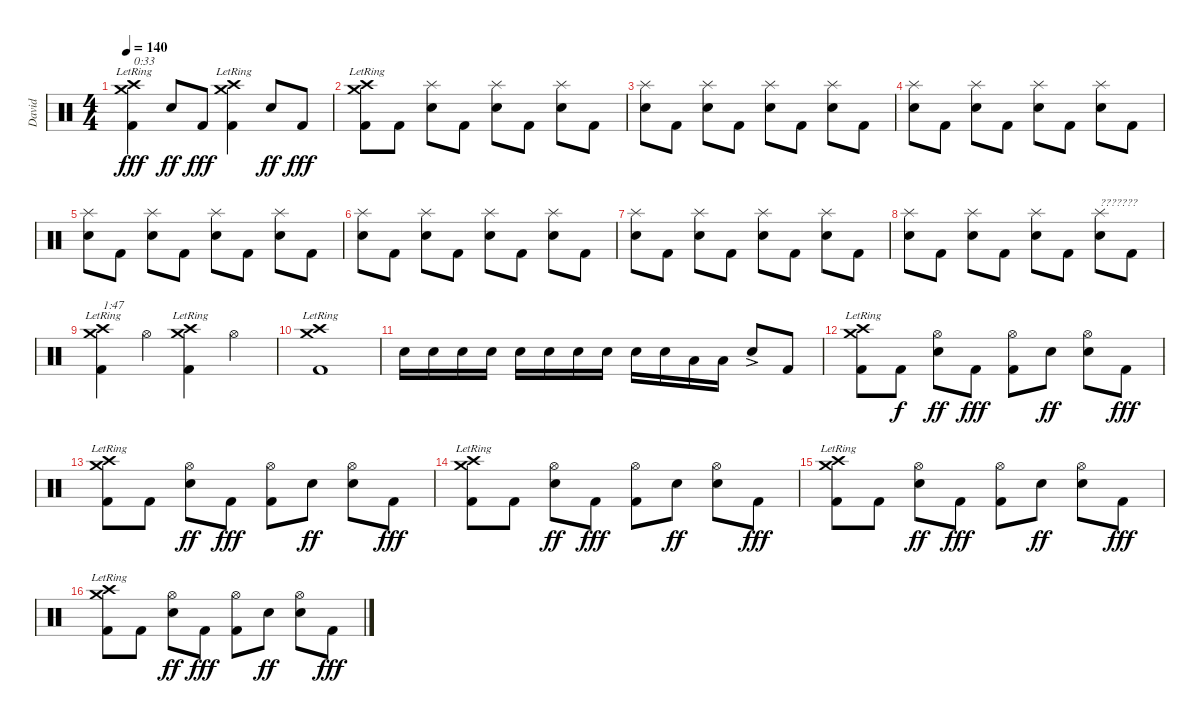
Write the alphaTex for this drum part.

\track ("David " "David ") {instrument percussion}
\staff {score}
\articulation defaults
\ts (4 4)
\tempo 140
\clef neutral
\ks c
("Crash high (hit)"{lr} "Crash medium (hit)"{lr} "Kick (hit) 2").4{txt "0:33" dy fff} "Electric Snare (hit)".8{dy ff} "Kick (hit) 2".8{dy fff} ("Crash high (hit)"{lr} "Crash medium (hit)"{lr} "Kick (hit) 2").4 "Electric Snare (hit)".8{dy ff} "Kick (hit) 2".8{dy fff} |
("Crash high (hit)"{lr} "Crash medium (hit)"{lr} "Kick (hit) 2").8 "Kick (hit) 2".8 ("Electric Snare (hit)" "Splash (hit)").8 "Kick (hit) 2".8 ("Electric Snare (hit)" "Splash (hit)").8 "Kick (hit) 2".8 ("Electric Snare (hit)" "Splash (hit)").8 "Kick (hit) 2".8 |
("Electric Snare (hit)" "Splash (hit)").8 "Kick (hit) 2".8 ("Electric Snare (hit)" "Splash (hit)").8 "Kick (hit) 2".8 ("Electric Snare (hit)" "Splash (hit)").8 "Kick (hit) 2".8 ("Electric Snare (hit)" "Splash (hit)").8 "Kick (hit) 2".8 |
("Electric Snare (hit)" "Splash (hit)").8 "Kick (hit) 2".8 ("Electric Snare (hit)" "Splash (hit)").8 "Kick (hit) 2".8 ("Electric Snare (hit)" "Splash (hit)").8 "Kick (hit) 2".8 ("Electric Snare (hit)" "Splash (hit)").8 "Kick (hit) 2".8 |
("Electric Snare (hit)" "Splash (hit)").8 "Kick (hit) 2".8 ("Electric Snare (hit)" "Splash (hit)").8 "Kick (hit) 2".8 ("Electric Snare (hit)" "Splash (hit)").8 "Kick (hit) 2".8 ("Electric Snare (hit)" "Splash (hit)").8 "Kick (hit) 2".8 |
("Electric Snare (hit)" "Splash (hit)").8 "Kick (hit) 2".8 ("Electric Snare (hit)" "Splash (hit)").8 "Kick (hit) 2".8 ("Electric Snare (hit)" "Splash (hit)").8 "Kick (hit) 2".8 ("Electric Snare (hit)" "Splash (hit)").8 "Kick (hit) 2".8 |
("Electric Snare (hit)" "Splash (hit)").8 "Kick (hit) 2".8 ("Electric Snare (hit)" "Splash (hit)").8 "Kick (hit) 2".8 ("Electric Snare (hit)" "Splash (hit)").8 "Kick (hit) 2".8 ("Electric Snare (hit)" "Splash (hit)").8 "Kick (hit) 2".8 |
("Electric Snare (hit)" "Splash (hit)").8 "Kick (hit) 2".8 ("Electric Snare (hit)" "Splash (hit)").8 "Kick (hit) 2".8 ("Electric Snare (hit)" "Splash (hit)").8 "Kick (hit) 2".8 ("Electric Snare (hit)" "Splash (hit)").8{txt "???????"} "Kick (hit) 2".8 |
("Crash high (hit)"{lr} "Crash medium (hit)"{lr} "Kick (hit) 2").4{txt "1:47"} "Hi-Hat (open)".4 ("Crash high (hit)"{lr} "Crash medium (hit)" "Kick (hit) 2").4 "Hi-Hat (open)".4 |
("Crash high (hit)"{lr} "Crash medium (hit)"{lr} "Kick (hit) 2").1 |
"Electric Snare (hit)".16 "Electric Snare (hit)".16 "Electric Snare (hit)".16 "Electric Snare (hit)".16 "Electric Snare (hit)".16 "Electric Snare (hit)".16 "Electric Snare (hit)".16 "Electric Snare (hit)".16 "Electric Snare (hit)".16 "Electric Snare (hit)".16 "Low Tom (hit)".16 "Low Tom (hit)".16 "Electric Snare (hit)"{ac}.8 "Kick (hit) 2".8 |
("Crash high (hit)"{lr} "Crash medium (hit)"{lr} "Kick (hit) 2").8 "Kick (hit) 2".8{dy f} ("Hi-Hat (open)" "Electric Snare (hit)").8{dy ff} "Kick (hit) 2".8{dy fff} ("Hi-Hat (open)" "Kick (hit) 2").8 "Electric Snare (hit)".8{dy ff} ("Hi-Hat (open)" "Electric Snare (hit)").8 "Kick (hit) 2".8{dy fff} |
("Crash high (hit)"{lr} "Crash medium (hit)"{lr} "Kick (hit) 2").8 "Kick (hit) 2".8 ("Hi-Hat (open)" "Electric Snare (hit)").8{dy ff} "Kick (hit) 2".8{dy fff} ("Hi-Hat (open)" "Kick (hit) 2").8 "Electric Snare (hit)".8{dy ff} ("Hi-Hat (open)" "Electric Snare (hit)").8 "Kick (hit) 2".8{dy fff} |
("Crash high (hit)"{lr} "Crash medium (hit)"{lr} "Kick (hit) 2").8 "Kick (hit) 2".8 ("Hi-Hat (open)" "Electric Snare (hit)").8{dy ff} "Kick (hit) 2".8{dy fff} ("Hi-Hat (open)" "Kick (hit) 2").8 "Electric Snare (hit)".8{dy ff} ("Hi-Hat (open)" "Electric Snare (hit)").8 "Kick (hit) 2".8{dy fff} |
("Crash high (hit)"{lr} "Crash medium (hit)"{lr} "Kick (hit) 2").8 "Kick (hit) 2".8 ("Hi-Hat (open)" "Electric Snare (hit)").8{dy ff} "Kick (hit) 2".8{dy fff} ("Hi-Hat (open)" "Kick (hit) 2").8 "Electric Snare (hit)".8{dy ff} ("Hi-Hat (open)" "Electric Snare (hit)").8 "Kick (hit) 2".8{dy fff} |
("Crash high (hit)"{lr} "Crash medium (hit)"{lr} "Kick (hit) 2").8 "Kick (hit) 2".8 ("Hi-Hat (open)" "Electric Snare (hit)").8{dy ff} "Kick (hit) 2".8{dy fff} ("Hi-Hat (open)" "Kick (hit) 2").8 "Electric Snare (hit)".8{dy ff} ("Hi-Hat (open)" "Electric Snare (hit)").8 "Kick (hit) 2".8{dy fff}
